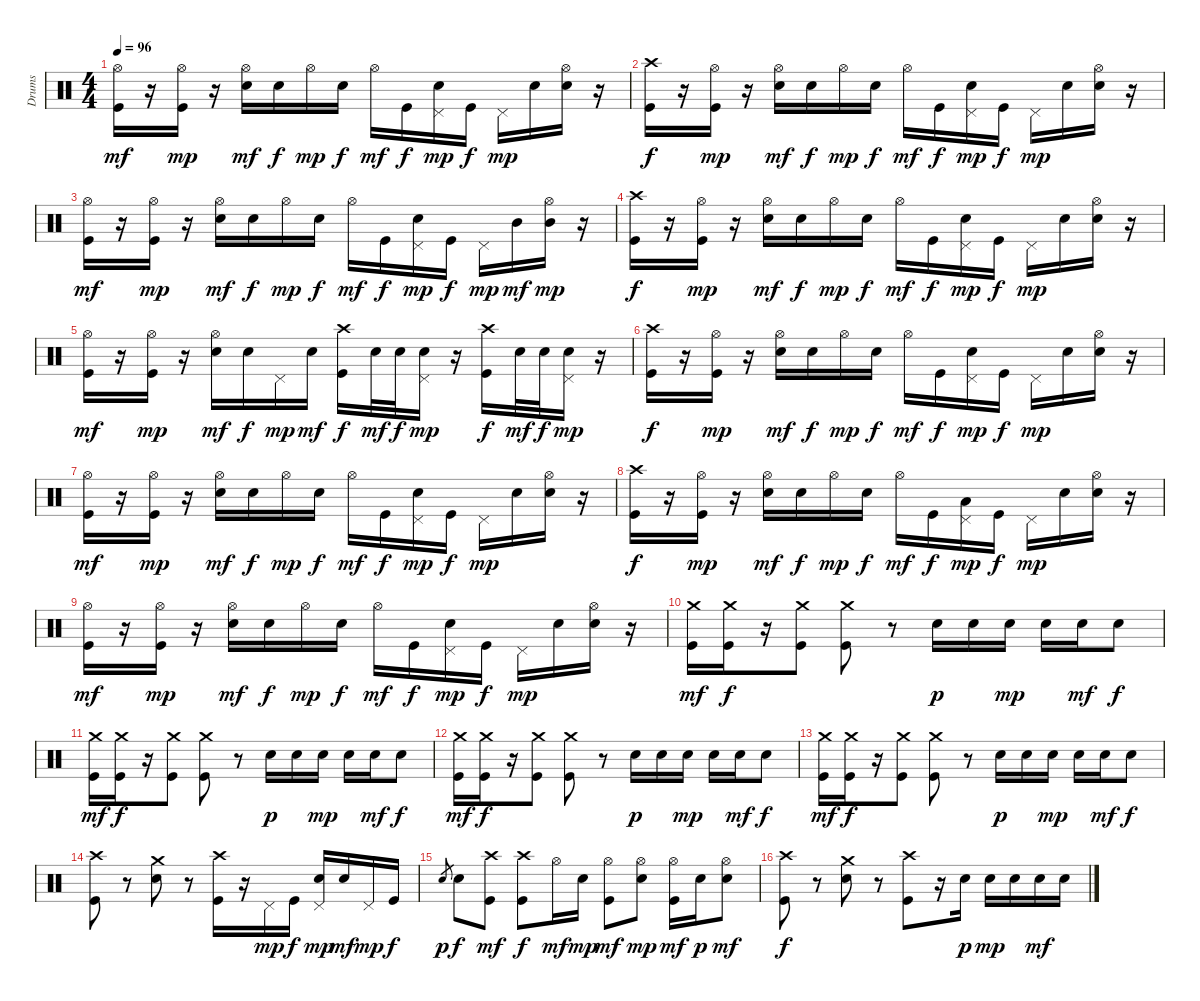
\track ("Drums" "Drums") {instrument percussion}
\staff {score}
\articulation defaults
\ts (4 4)
\tempo 96
\clef neutral
\ks c
("Hi-Hat (open)" "Kick (hit)").16{dy mf} r.16 ("Hi-Hat (open)" "Kick (hit)").16{dy mp} r.16 ("Hi-Hat (open)" "Snare (hit) 2").16{dy mf} "Snare (hit) 2".16{dy f} "Hi-Hat (open)".16{dy mp} "Snare (hit) 2".16{dy f} "Hi-Hat (open)".16{dy mf} "Kick (hit)".16{dy f} ("Pedal Hi-Hat (hit)" "Snare (hit) 2").16{dy mp} "Kick (hit)".16{dy f} "Pedal Hi-Hat (hit)".16{dy mp} "Snare (hit) 2".16 ("Hi-Hat (open)" "Snare (hit) 2").16 r.16 |
("Crash high (hit)" "Kick (hit)").16{dy f} r.16 ("Hi-Hat (open)" "Kick (hit)").16{dy mp} r.16 ("Hi-Hat (open)" "Snare (hit) 2").16{dy mf} "Snare (hit) 2".16{dy f} "Hi-Hat (open)".16{dy mp} "Snare (hit) 2".16{dy f} "Hi-Hat (open)".16{dy mf} "Kick (hit)".16{dy f} ("Pedal Hi-Hat (hit)" "Snare (hit) 2").16{dy mp} "Kick (hit)".16{dy f} "Pedal Hi-Hat (hit)".16{dy mp} "Snare (hit) 2".16 ("Hi-Hat (open)" "Snare (hit) 2").16 r.16 |
("Hi-Hat (open)" "Kick (hit)").16{dy mf} r.16 ("Hi-Hat (open)" "Kick (hit)").16{dy mp} r.16 ("Hi-Hat (open)" "Snare (hit) 2").16{dy mf} "Snare (hit) 2".16{dy f} "Hi-Hat (open)".16{dy mp} "Snare (hit) 2".16{dy f} "Hi-Hat (open)".16{dy mf} "Kick (hit)".16{dy f} ("Pedal Hi-Hat (hit)" "Snare (hit) 2").16{dy mp} "Kick (hit)".16{dy f} "Pedal Hi-Hat (hit)".16{dy mp} "Mid Tom (hit)".16{dy mf} ("Hi-Hat (open)" "Mid Tom (hit)").16{dy mp} r.16 |
("Crash high (hit)" "Kick (hit)").16{dy f} r.16 ("Hi-Hat (open)" "Kick (hit)").16{dy mp} r.16 ("Hi-Hat (open)" "Snare (hit) 2").16{dy mf} "Snare (hit) 2".16{dy f} "Hi-Hat (open)".16{dy mp} "Snare (hit) 2".16{dy f} "Hi-Hat (open)".16{dy mf} "Kick (hit)".16{dy f} ("Pedal Hi-Hat (hit)" "Snare (hit) 2").16{dy mp} "Kick (hit)".16{dy f} "Pedal Hi-Hat (hit)".16{dy mp} "Snare (hit) 2".16 ("Hi-Hat (open)" "Snare (hit) 2").16 r.16 |
("Hi-Hat (open)" "Kick (hit)").16{dy mf} r.16 ("Hi-Hat (open)" "Kick (hit)").16{dy mp} r.16 ("Hi-Hat (open)" "Snare (hit) 2").16{dy mf} "Snare (hit) 2".16{dy f} "Pedal Hi-Hat (hit)".16{dy mp} "Snare (hit) 2".16{dy mf} ("Crash high (hit)" "Kick (hit)").16{dy f} "Snare (hit) 2".32{dy mf} "Snare (hit) 2".32{dy f} ("Pedal Hi-Hat (hit)" "Snare (hit) 2").16{dy mp} r.16 ("Crash high (hit)" "Kick (hit)").16{dy f} "Snare (hit) 2".32{dy mf} "Snare (hit) 2".32{dy f} ("Pedal Hi-Hat (hit)" "Snare (hit) 2").16{dy mp} r.16 |
("Crash high (hit)" "Kick (hit)").16{dy f} r.16 ("Hi-Hat (open)" "Kick (hit)").16{dy mp} r.16 ("Hi-Hat (open)" "Snare (hit) 2").16{dy mf} "Snare (hit) 2".16{dy f} "Hi-Hat (open)".16{dy mp} "Snare (hit) 2".16{dy f} "Hi-Hat (open)".16{dy mf} "Kick (hit)".16{dy f} ("Pedal Hi-Hat (hit)" "Snare (hit) 2").16{dy mp} "Kick (hit)".16{dy f} "Pedal Hi-Hat (hit)".16{dy mp} "Snare (hit) 2".16 ("Hi-Hat (open)" "Snare (hit) 2").16 r.16 |
("Hi-Hat (open)" "Kick (hit)").16{dy mf} r.16 ("Hi-Hat (open)" "Kick (hit)").16{dy mp} r.16 ("Hi-Hat (open)" "Snare (hit) 2").16{dy mf} "Snare (hit) 2".16{dy f} "Hi-Hat (open)".16{dy mp} "Snare (hit) 2".16{dy f} "Hi-Hat (open)".16{dy mf} "Kick (hit)".16{dy f} ("Pedal Hi-Hat (hit)" "Snare (hit) 2").16{dy mp} "Kick (hit)".16{dy f} "Pedal Hi-Hat (hit)".16{dy mp} "Snare (hit) 2".16 ("Hi-Hat (open)" "Snare (hit) 2").16 r.16 |
("Crash high (hit)" "Kick (hit)").16{dy f} r.16 ("Hi-Hat (open)" "Kick (hit)").16{dy mp} r.16 ("Hi-Hat (open)" "Snare (hit) 2").16{dy mf} "Snare (hit) 2".16{dy f} "Hi-Hat (open)".16{dy mp} "Snare (hit) 2".16{dy f} "Hi-Hat (open)".16{dy mf} "Kick (hit)".16{dy f} ("Pedal Hi-Hat (hit)" "Low Tom (hit)").16{dy mp} "Kick (hit)".16{dy f} "Pedal Hi-Hat (hit)".16{dy mp} "Snare (hit) 2".16 ("Hi-Hat (open)" "Snare (hit) 2").16 r.16 |
("Hi-Hat (open)" "Kick (hit)").16{dy mf} r.16 ("Hi-Hat (open)" "Kick (hit)").16{dy mp} r.16 ("Hi-Hat (open)" "Snare (hit) 2").16{dy mf} "Snare (hit) 2".16{dy f} "Hi-Hat (open)".16{dy mp} "Snare (hit) 2".16{dy f} "Hi-Hat (open)".16{dy mf} "Kick (hit)".16{dy f} ("Pedal Hi-Hat (hit)" "Snare (hit) 2").16{dy mp} "Kick (hit)".16{dy f} "Pedal Hi-Hat (hit)".16{dy mp} "Snare (hit) 2".16 ("Hi-Hat (open)" "Snare (hit) 2").16 r.16 |
("Crash medium (hit)" "Kick (hit)").16{dy mf} ("Crash medium (hit)" "Kick (hit)").16{dy f} r.16 ("Crash medium (hit)" "Kick (hit)").8 ("Crash medium (hit)" "Kick (hit)").8 r.8 "Snare (hit) 2".16{dy p} "Snare (hit) 2".16 "Snare (hit) 2".16{dy mp} "Snare (hit) 2".16 "Snare (hit) 2".16{dy mf} "Snare (hit) 2".8{dy f} |
("Crash medium (hit)" "Kick (hit)").16{dy mf} ("Crash medium (hit)" "Kick (hit)").16{dy f} r.16 ("Crash medium (hit)" "Kick (hit)").8 ("Crash medium (hit)" "Kick (hit)").8 r.8 "Snare (hit) 2".16{dy p} "Snare (hit) 2".16 "Snare (hit) 2".16{dy mp} "Snare (hit) 2".16 "Snare (hit) 2".16{dy mf} "Snare (hit) 2".8{dy f} |
("Crash medium (hit)" "Kick (hit)").16{dy mf} ("Crash medium (hit)" "Kick (hit)").16{dy f} r.16 ("Crash medium (hit)" "Kick (hit)").8 ("Crash medium (hit)" "Kick (hit)").8 r.8 "Snare (hit) 2".16{dy p} "Snare (hit) 2".16 "Snare (hit) 2".16{dy mp} "Snare (hit) 2".16 "Snare (hit) 2".16{dy mf} "Snare (hit) 2".8{dy f} |
("Crash medium (hit)" "Kick (hit)").16{dy mf} ("Crash medium (hit)" "Kick (hit)").16{dy f} r.16 ("Crash medium (hit)" "Kick (hit)").8 ("Crash medium (hit)" "Kick (hit)").8 r.8 "Snare (hit) 2".16{dy p} "Snare (hit) 2".16 "Snare (hit) 2".16{dy mp} "Snare (hit) 2".16 "Snare (hit) 2".16{dy mf} "Snare (hit) 2".8{dy f} |
("Crash high (hit)" "Kick (hit)").8 r.8 ("Crash medium (hit)" "Snare (hit) 2").8 r.8 ("Crash high (hit)" "Kick (hit)").16 r.16 "Pedal Hi-Hat (hit)".16{dy mp} "Kick (hit)".16{dy f} ("Pedal Hi-Hat (hit)" "Snare (hit) 2").16{dy mp} "Snare (hit) 2".16{dy mf} "Pedal Hi-Hat (hit)".16{dy mp} "Kick (hit)".16{dy f} |
"Snare (hit) 2".8{gr dy p} "Snare (hit) 2".8{dy f} ("Crash high (hit)" "Kick (hit)").8{dy mf} ("Crash high (hit)" "Kick (hit)").8{dy f} "Hi-Hat (open)".16{dy mf} "Snare (hit) 2".16{dy mp} ("Hi-Hat (open)" "Kick (hit)").8{dy mf} ("Hi-Hat (open)" "Snare (hit) 2").8{dy mp} ("Hi-Hat (open)" "Kick (hit)").16{dy mf} "Snare (hit) 2".16{dy p} ("Hi-Hat (open)" "Snare (hit) 2").8{dy mf} |
("Crash high (hit)" "Kick (hit)").8{dy f} r.8 ("Crash medium (hit)" "Snare (hit) 2").8 r.8 ("Crash high (hit)" "Kick (hit)").8 r.16 "Snare (hit) 2".16{dy p} "Snare (hit) 2".16{dy mp} "Snare (hit) 2".16 "Snare (hit) 2".16{dy mf} "Snare (hit) 2".16
